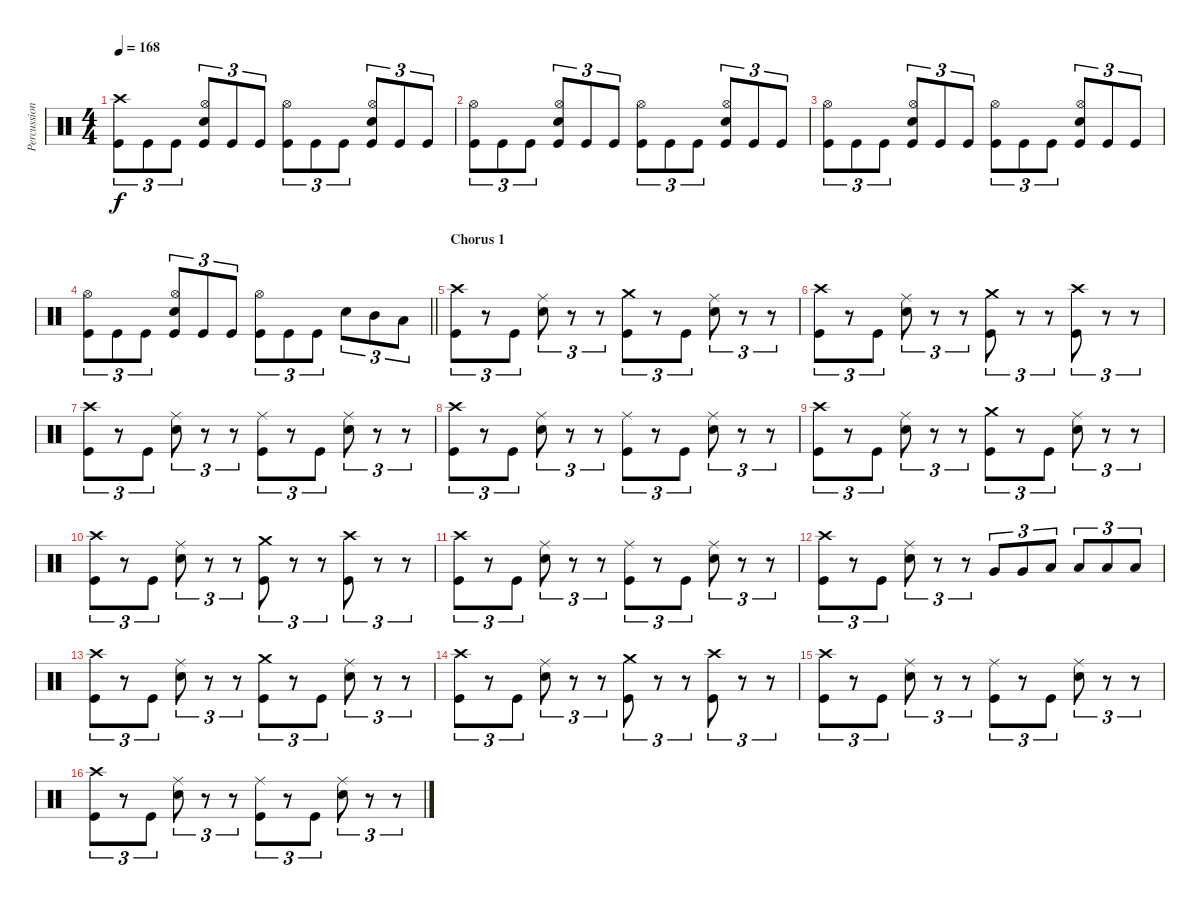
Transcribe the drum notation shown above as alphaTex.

\track ("Percussion" "Percussion") {instrument percussion}
\staff {score}
\articulation defaults
\ts (4 4)
\tempo 168
\clef neutral
\ks c
("Crash high (hit)" "Kick (hit)").8{tu (3 2) dy f} "Kick (hit)".8{tu (3 2)} "Kick (hit)".8{tu (3 2)} ("Hi-Hat (open)" "Electric Snare (hit)" "Kick (hit)").8{tu (3 2)} "Kick (hit)".8{tu (3 2)} "Kick (hit)".8{tu (3 2)} ("Hi-Hat (open)" "Kick (hit)").8{tu (3 2)} "Kick (hit)".8{tu (3 2)} "Kick (hit)".8{tu (3 2)} ("Hi-Hat (open)" "Electric Snare (hit)" "Kick (hit)").8{tu (3 2)} "Kick (hit)".8{tu (3 2)} "Kick (hit)".8{tu (3 2)} |
("Hi-Hat (open)" "Kick (hit)").8{tu (3 2)} "Kick (hit)".8{tu (3 2)} "Kick (hit)".8{tu (3 2)} ("Hi-Hat (open)" "Electric Snare (hit)" "Kick (hit)").8{tu (3 2)} "Kick (hit)".8{tu (3 2)} "Kick (hit)".8{tu (3 2)} ("Hi-Hat (open)" "Kick (hit)").8{tu (3 2)} "Kick (hit)".8{tu (3 2)} "Kick (hit)".8{tu (3 2)} ("Hi-Hat (open)" "Electric Snare (hit)" "Kick (hit)").8{tu (3 2)} "Kick (hit)".8{tu (3 2)} "Kick (hit)".8{tu (3 2)} |
("Hi-Hat (open)" "Kick (hit)").8{tu (3 2)} "Kick (hit)".8{tu (3 2)} "Kick (hit)".8{tu (3 2)} ("Hi-Hat (open)" "Electric Snare (hit)" "Kick (hit)").8{tu (3 2)} "Kick (hit)".8{tu (3 2)} "Kick (hit)".8{tu (3 2)} ("Hi-Hat (open)" "Kick (hit)").8{tu (3 2)} "Kick (hit)".8{tu (3 2)} "Kick (hit)".8{tu (3 2)} ("Hi-Hat (open)" "Electric Snare (hit)" "Kick (hit)").8{tu (3 2)} "Kick (hit)".8{tu (3 2)} "Kick (hit)".8{tu (3 2)} |
\barLineRight lightlight
("Hi-Hat (open)" "Kick (hit)").8{tu (3 2)} "Kick (hit)".8{tu (3 2)} "Kick (hit)".8{tu (3 2)} ("Hi-Hat (open)" "Electric Snare (hit)" "Kick (hit)").8{tu (3 2)} "Kick (hit)".8{tu (3 2)} "Kick (hit)".8{tu (3 2)} ("Hi-Hat (open)" "Kick (hit)").8{tu (3 2)} "Kick (hit)".8{tu (3 2)} "Kick (hit)".8{tu (3 2)} "Electric Snare (hit)".8{tu (3 2)} "Mid Tom (hit)".8{tu (3 2)} "Low Tom (hit)".8{tu (3 2)} |
\section ("" "Chorus 1")
("Crash high (hit)" "Kick (hit)").8{tu (3 2)} r.8{tu (3 2)} "Kick (hit)".8{tu (3 2)} ("Ride (middle)" "Electric Snare (hit)").8{tu (3 2)} r.8{tu (3 2)} r.8{tu (3 2)} ("Crash medium (hit)" "Kick (hit)").8{tu (3 2)} r.8{tu (3 2)} "Kick (hit)".8{tu (3 2)} ("Ride (middle)" "Electric Snare (hit)").8{tu (3 2)} r.8{tu (3 2)} r.8{tu (3 2)} |
("Crash high (hit)" "Kick (hit)").8{tu (3 2)} r.8{tu (3 2)} "Kick (hit)".8{tu (3 2)} ("Ride (middle)" "Electric Snare (hit)").8{tu (3 2)} r.8{tu (3 2)} r.8{tu (3 2)} ("Crash medium (hit)" "Kick (hit)").8{tu (3 2)} r.8{tu (3 2)} r.8{tu (3 2)} ("Crash high (hit)" "Kick (hit)").8{tu (3 2)} r.8{tu (3 2)} r.8{tu (3 2)} |
("Crash high (hit)" "Kick (hit)").8{tu (3 2)} r.8{tu (3 2)} "Kick (hit)".8{tu (3 2)} ("Ride (middle)" "Electric Snare (hit)").8{tu (3 2)} r.8{tu (3 2)} r.8{tu (3 2)} ("Ride (middle)" "Kick (hit)").8{tu (3 2)} r.8{tu (3 2)} "Kick (hit)".8{tu (3 2)} ("Ride (middle)" "Electric Snare (hit)").8{tu (3 2)} r.8{tu (3 2)} r.8{tu (3 2)} |
("Crash high (hit)" "Kick (hit)").8{tu (3 2)} r.8{tu (3 2)} "Kick (hit)".8{tu (3 2)} ("Ride (middle)" "Electric Snare (hit)").8{tu (3 2)} r.8{tu (3 2)} r.8{tu (3 2)} ("Ride (middle)" "Kick (hit)").8{tu (3 2)} r.8{tu (3 2)} "Kick (hit)".8{tu (3 2)} ("Ride (middle)" "Electric Snare (hit)").8{tu (3 2)} r.8{tu (3 2)} r.8{tu (3 2)} |
("Crash high (hit)" "Kick (hit)").8{tu (3 2)} r.8{tu (3 2)} "Kick (hit)".8{tu (3 2)} ("Ride (middle)" "Electric Snare (hit)").8{tu (3 2)} r.8{tu (3 2)} r.8{tu (3 2)} ("Crash medium (hit)" "Kick (hit)").8{tu (3 2)} r.8{tu (3 2)} "Kick (hit)".8{tu (3 2)} ("Ride (middle)" "Electric Snare (hit)").8{tu (3 2)} r.8{tu (3 2)} r.8{tu (3 2)} |
("Crash high (hit)" "Kick (hit)").8{tu (3 2)} r.8{tu (3 2)} "Kick (hit)".8{tu (3 2)} ("Ride (middle)" "Electric Snare (hit)").8{tu (3 2)} r.8{tu (3 2)} r.8{tu (3 2)} ("Crash medium (hit)" "Kick (hit)").8{tu (3 2)} r.8{tu (3 2)} r.8{tu (3 2)} ("Crash high (hit)" "Kick (hit)").8{tu (3 2)} r.8{tu (3 2)} r.8{tu (3 2)} |
("Crash high (hit)" "Kick (hit)").8{tu (3 2)} r.8{tu (3 2)} "Kick (hit)".8{tu (3 2)} ("Ride (middle)" "Electric Snare (hit)").8{tu (3 2)} r.8{tu (3 2)} r.8{tu (3 2)} ("Ride (middle)" "Kick (hit)").8{tu (3 2)} r.8{tu (3 2)} "Kick (hit)".8{tu (3 2)} ("Ride (middle)" "Electric Snare (hit)").8{tu (3 2)} r.8{tu (3 2)} r.8{tu (3 2)} |
("Crash high (hit)" "Kick (hit)").8{tu (3 2)} r.8{tu (3 2)} "Kick (hit)".8{tu (3 2)} ("Ride (middle)" "Electric Snare (hit)").8{tu (3 2)} r.8{tu (3 2)} r.8{tu (3 2)} "Very Low Tom (hit)".8{tu (3 2)} "Very Low Tom (hit)".8{tu (3 2)} "Low Floor Tom (hit)".8{tu (3 2)} "Low Floor Tom (hit)".8{tu (3 2)} "Low Floor Tom (hit)".8{tu (3 2)} "Low Floor Tom (hit)".8{tu (3 2)} |
("Crash high (hit)" "Kick (hit)").8{tu (3 2)} r.8{tu (3 2)} "Kick (hit)".8{tu (3 2)} ("Ride (middle)" "Electric Snare (hit)").8{tu (3 2)} r.8{tu (3 2)} r.8{tu (3 2)} ("Crash medium (hit)" "Kick (hit)").8{tu (3 2)} r.8{tu (3 2)} "Kick (hit)".8{tu (3 2)} ("Ride (middle)" "Electric Snare (hit)").8{tu (3 2)} r.8{tu (3 2)} r.8{tu (3 2)} |
("Crash high (hit)" "Kick (hit)").8{tu (3 2)} r.8{tu (3 2)} "Kick (hit)".8{tu (3 2)} ("Ride (middle)" "Electric Snare (hit)").8{tu (3 2)} r.8{tu (3 2)} r.8{tu (3 2)} ("Crash medium (hit)" "Kick (hit)").8{tu (3 2)} r.8{tu (3 2)} r.8{tu (3 2)} ("Crash high (hit)" "Kick (hit)").8{tu (3 2)} r.8{tu (3 2)} r.8{tu (3 2)} |
("Crash high (hit)" "Kick (hit)").8{tu (3 2)} r.8{tu (3 2)} "Kick (hit)".8{tu (3 2)} ("Ride (middle)" "Electric Snare (hit)").8{tu (3 2)} r.8{tu (3 2)} r.8{tu (3 2)} ("Ride (middle)" "Kick (hit)").8{tu (3 2)} r.8{tu (3 2)} "Kick (hit)".8{tu (3 2)} ("Ride (middle)" "Electric Snare (hit)").8{tu (3 2)} r.8{tu (3 2)} r.8{tu (3 2)} |
("Crash high (hit)" "Kick (hit)").8{tu (3 2)} r.8{tu (3 2)} "Kick (hit)".8{tu (3 2)} ("Ride (middle)" "Electric Snare (hit)").8{tu (3 2)} r.8{tu (3 2)} r.8{tu (3 2)} ("Ride (middle)" "Kick (hit)").8{tu (3 2)} r.8{tu (3 2)} "Kick (hit)".8{tu (3 2)} ("Ride (middle)" "Electric Snare (hit)").8{tu (3 2)} r.8{tu (3 2)} r.8{tu (3 2)}
